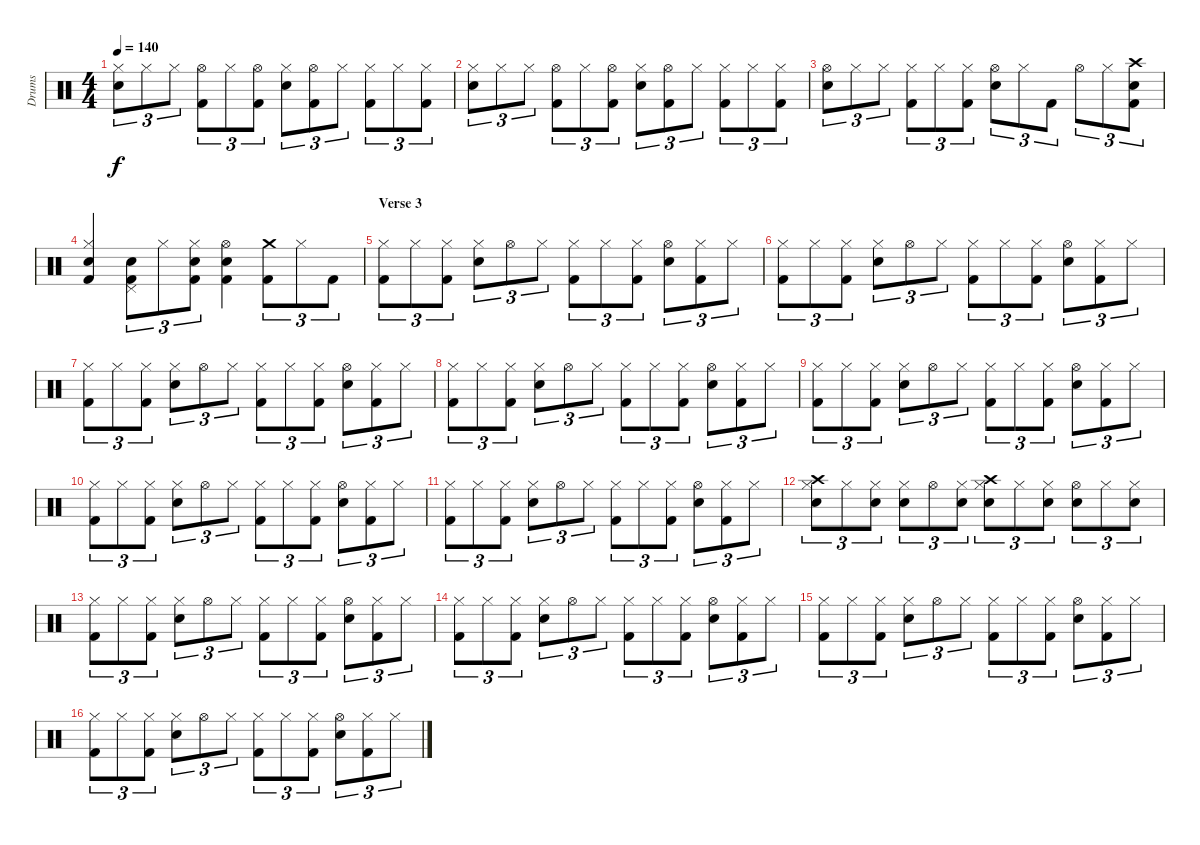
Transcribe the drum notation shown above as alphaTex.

\track ("Drums" "Drums") {instrument percussion}
\staff {score}
\articulation defaults
\ts (4 4)
\tempo 140
\clef neutral
\ks c
("Snare (hit) 2" "Hi-Hat (closed)").8{tu (3 2) dy f} "Hi-Hat (closed)".8{tu (3 2)} "Hi-Hat (closed)".8{tu (3 2)} ("Kick (hit) 2" "Hi-Hat (open)").8{tu (3 2)} "Hi-Hat (closed)".8{tu (3 2)} ("Kick (hit) 2" "Hi-Hat (open)").8{tu (3 2)} ("Hi-Hat (closed)" "Snare (hit) 2").8{tu (3 2)} ("Hi-Hat (open)" "Kick (hit) 2").8{tu (3 2)} "Hi-Hat (closed)".8{tu (3 2)} ("Hi-Hat (closed)" "Kick (hit) 2").8{tu (3 2)} "Hi-Hat (closed)".8{tu (3 2)} ("Hi-Hat (closed)" "Kick (hit) 2").8{tu (3 2)} |
("Snare (hit) 2" "Hi-Hat (closed)").8{tu (3 2)} "Hi-Hat (closed)".8{tu (3 2)} "Hi-Hat (closed)".8{tu (3 2)} ("Kick (hit) 2" "Hi-Hat (open)").8{tu (3 2)} "Hi-Hat (closed)".8{tu (3 2)} ("Kick (hit) 2" "Hi-Hat (open)").8{tu (3 2)} ("Hi-Hat (closed)" "Snare (hit) 2").8{tu (3 2)} ("Hi-Hat (open)" "Kick (hit) 2").8{tu (3 2)} "Hi-Hat (closed)".8{tu (3 2)} ("Hi-Hat (closed)" "Kick (hit) 2").8{tu (3 2)} "Hi-Hat (closed)".8{tu (3 2)} ("Hi-Hat (closed)" "Kick (hit) 2").8{tu (3 2)} |
("Snare (hit) 2" "Hi-Hat (open)").8{tu (3 2)} "Hi-Hat (closed)".8{tu (3 2)} "Hi-Hat (closed)".8{tu (3 2)} ("Hi-Hat (closed)" "Kick (hit) 2").8{tu (3 2)} "Hi-Hat (closed)".8{tu (3 2)} ("Kick (hit) 2" "Hi-Hat (closed)").8{tu (3 2)} ("Snare (hit) 2" "Hi-Hat (open)").8{tu (3 2)} "Hi-Hat (closed)".8{tu (3 2)} "Kick (hit) 2".8{tu (3 2)} "Hi-Hat (open)".8{tu (3 2)} "Hi-Hat (closed)".8{tu (3 2)} ("Kick (hit) 2" "Crash high (hit)" "Snare (hit) 2").8{tu (3 2)} |
("Hi-Hat (closed)" "Kick (hit) 2" "Snare (hit) 2").4 ("Snare (hit) 2" "Kick (hit) 2" "Pedal Hi-Hat (hit)").8{tu (3 2)} "Hi-Hat (closed)".8{tu (3 2)} ("Hi-Hat (closed)" "Kick (hit) 2" "Snare (hit) 2").8{tu (3 2)} ("Kick (hit) 2" "Hi-Hat (open)" "Snare (hit) 2").4 ("Crash medium (hit)" "Kick (hit) 2").8{tu (3 2)} "Hi-Hat (closed)".8{tu (3 2)} "Kick (hit) 2".8{tu (3 2)} |
\section ("" "Verse 3")
("Kick (hit) 2" "Hi-Hat (closed)").8{tu (3 2)} "Hi-Hat (closed)".8{tu (3 2)} ("Kick (hit) 2" "Hi-Hat (closed)").8{tu (3 2)} ("Snare (hit) 2" "Hi-Hat (closed)").8{tu (3 2)} "Hi-Hat (open)".8{tu (3 2)} "Hi-Hat (closed)".8{tu (3 2)} ("Kick (hit) 2" "Hi-Hat (closed)").8{tu (3 2)} "Hi-Hat (closed)".8{tu (3 2)} ("Kick (hit) 2" "Hi-Hat (closed)").8{tu (3 2)} ("Snare (hit) 2" "Hi-Hat (open)").8{tu (3 2)} ("Kick (hit) 2" "Hi-Hat (closed)").8{tu (3 2)} "Hi-Hat (closed)".8{tu (3 2)} |
("Kick (hit) 2" "Hi-Hat (closed)").8{tu (3 2)} "Hi-Hat (closed)".8{tu (3 2)} ("Kick (hit) 2" "Hi-Hat (closed)").8{tu (3 2)} ("Snare (hit) 2" "Hi-Hat (closed)").8{tu (3 2)} "Hi-Hat (open)".8{tu (3 2)} "Hi-Hat (closed)".8{tu (3 2)} ("Kick (hit) 2" "Hi-Hat (closed)").8{tu (3 2)} "Hi-Hat (closed)".8{tu (3 2)} ("Kick (hit) 2" "Hi-Hat (closed)").8{tu (3 2)} ("Snare (hit) 2" "Hi-Hat (open)").8{tu (3 2)} ("Kick (hit) 2" "Hi-Hat (closed)").8{tu (3 2)} "Hi-Hat (closed)".8{tu (3 2)} |
("Kick (hit) 2" "Hi-Hat (closed)").8{tu (3 2)} "Hi-Hat (closed)".8{tu (3 2)} ("Kick (hit) 2" "Hi-Hat (closed)").8{tu (3 2)} ("Snare (hit) 2" "Hi-Hat (closed)").8{tu (3 2)} "Hi-Hat (open)".8{tu (3 2)} "Hi-Hat (closed)".8{tu (3 2)} ("Kick (hit) 2" "Hi-Hat (closed)").8{tu (3 2)} "Hi-Hat (closed)".8{tu (3 2)} ("Kick (hit) 2" "Hi-Hat (closed)").8{tu (3 2)} ("Snare (hit) 2" "Hi-Hat (open)").8{tu (3 2)} ("Kick (hit) 2" "Hi-Hat (closed)").8{tu (3 2)} "Hi-Hat (closed)".8{tu (3 2)} |
("Kick (hit) 2" "Hi-Hat (closed)").8{tu (3 2)} "Hi-Hat (closed)".8{tu (3 2)} ("Kick (hit) 2" "Hi-Hat (closed)").8{tu (3 2)} ("Snare (hit) 2" "Hi-Hat (closed)").8{tu (3 2)} "Hi-Hat (open)".8{tu (3 2)} "Hi-Hat (closed)".8{tu (3 2)} ("Kick (hit) 2" "Hi-Hat (closed)").8{tu (3 2)} "Hi-Hat (closed)".8{tu (3 2)} ("Kick (hit) 2" "Hi-Hat (closed)").8{tu (3 2)} ("Snare (hit) 2" "Hi-Hat (open)").8{tu (3 2)} ("Kick (hit) 2" "Hi-Hat (closed)").8{tu (3 2)} "Hi-Hat (closed)".8{tu (3 2)} |
("Kick (hit) 2" "Hi-Hat (closed)").8{tu (3 2)} "Hi-Hat (closed)".8{tu (3 2)} ("Kick (hit) 2" "Hi-Hat (closed)").8{tu (3 2)} ("Snare (hit) 2" "Hi-Hat (closed)").8{tu (3 2)} "Hi-Hat (open)".8{tu (3 2)} "Hi-Hat (closed)".8{tu (3 2)} ("Kick (hit) 2" "Hi-Hat (closed)").8{tu (3 2)} "Hi-Hat (closed)".8{tu (3 2)} ("Kick (hit) 2" "Hi-Hat (closed)").8{tu (3 2)} ("Snare (hit) 2" "Hi-Hat (open)").8{tu (3 2)} ("Kick (hit) 2" "Hi-Hat (closed)").8{tu (3 2)} "Hi-Hat (closed)".8{tu (3 2)} |
("Kick (hit) 2" "Hi-Hat (closed)").8{tu (3 2)} "Hi-Hat (closed)".8{tu (3 2)} ("Kick (hit) 2" "Hi-Hat (closed)").8{tu (3 2)} ("Snare (hit) 2" "Hi-Hat (closed)").8{tu (3 2)} "Hi-Hat (open)".8{tu (3 2)} "Hi-Hat (closed)".8{tu (3 2)} ("Kick (hit) 2" "Hi-Hat (closed)").8{tu (3 2)} "Hi-Hat (closed)".8{tu (3 2)} ("Kick (hit) 2" "Hi-Hat (closed)").8{tu (3 2)} ("Snare (hit) 2" "Hi-Hat (open)").8{tu (3 2)} ("Kick (hit) 2" "Hi-Hat (closed)").8{tu (3 2)} "Hi-Hat (closed)".8{tu (3 2)} |
("Kick (hit) 2" "Hi-Hat (closed)").8{tu (3 2)} "Hi-Hat (closed)".8{tu (3 2)} ("Kick (hit) 2" "Hi-Hat (closed)").8{tu (3 2)} ("Snare (hit) 2" "Hi-Hat (closed)").8{tu (3 2)} "Hi-Hat (open)".8{tu (3 2)} "Hi-Hat (closed)".8{tu (3 2)} ("Kick (hit) 2" "Hi-Hat (closed)").8{tu (3 2)} "Hi-Hat (closed)".8{tu (3 2)} ("Kick (hit) 2" "Hi-Hat (closed)").8{tu (3 2)} ("Snare (hit) 2" "Hi-Hat (open)").8{tu (3 2)} ("Kick (hit) 2" "Hi-Hat (closed)").8{tu (3 2)} "Hi-Hat (closed)".8{tu (3 2)} |
("Snare (hit) 2" "Hi-Hat (closed)" "Crash high (hit)").8{tu (3 2)} "Hi-Hat (closed)".8{tu (3 2)} ("Snare (hit) 2" "Hi-Hat (closed)").8{tu (3 2)} ("Snare (hit) 2" "Hi-Hat (closed)").8{tu (3 2)} "Hi-Hat (open)".8{tu (3 2)} ("Snare (hit) 2" "Hi-Hat (closed)").8{tu (3 2)} ("Snare (hit) 2" "Hi-Hat (closed)" "Crash high (hit)").8{tu (3 2)} "Hi-Hat (closed)".8{tu (3 2)} ("Snare (hit) 2" "Hi-Hat (closed)").8{tu (3 2)} ("Snare (hit) 2" "Hi-Hat (open)").8{tu (3 2)} "Hi-Hat (closed)".8{tu (3 2)} ("Snare (hit) 2" "Hi-Hat (closed)").8{tu (3 2)} |
("Kick (hit) 2" "Hi-Hat (closed)").8{tu (3 2)} "Hi-Hat (closed)".8{tu (3 2)} ("Kick (hit) 2" "Hi-Hat (closed)").8{tu (3 2)} ("Snare (hit) 2" "Hi-Hat (closed)").8{tu (3 2)} "Hi-Hat (open)".8{tu (3 2)} "Hi-Hat (closed)".8{tu (3 2)} ("Kick (hit) 2" "Hi-Hat (closed)").8{tu (3 2)} "Hi-Hat (closed)".8{tu (3 2)} ("Kick (hit) 2" "Hi-Hat (closed)").8{tu (3 2)} ("Snare (hit) 2" "Hi-Hat (open)").8{tu (3 2)} ("Kick (hit) 2" "Hi-Hat (closed)").8{tu (3 2)} "Hi-Hat (closed)".8{tu (3 2)} |
("Kick (hit) 2" "Hi-Hat (closed)").8{tu (3 2)} "Hi-Hat (closed)".8{tu (3 2)} ("Kick (hit) 2" "Hi-Hat (closed)").8{tu (3 2)} ("Snare (hit) 2" "Hi-Hat (closed)").8{tu (3 2)} "Hi-Hat (open)".8{tu (3 2)} "Hi-Hat (closed)".8{tu (3 2)} ("Kick (hit) 2" "Hi-Hat (closed)").8{tu (3 2)} "Hi-Hat (closed)".8{tu (3 2)} ("Kick (hit) 2" "Hi-Hat (closed)").8{tu (3 2)} ("Snare (hit) 2" "Hi-Hat (open)").8{tu (3 2)} ("Kick (hit) 2" "Hi-Hat (closed)").8{tu (3 2)} "Hi-Hat (closed)".8{tu (3 2)} |
("Kick (hit) 2" "Hi-Hat (closed)").8{tu (3 2)} "Hi-Hat (closed)".8{tu (3 2)} ("Kick (hit) 2" "Hi-Hat (closed)").8{tu (3 2)} ("Snare (hit) 2" "Hi-Hat (closed)").8{tu (3 2)} "Hi-Hat (open)".8{tu (3 2)} "Hi-Hat (closed)".8{tu (3 2)} ("Kick (hit) 2" "Hi-Hat (closed)").8{tu (3 2)} "Hi-Hat (closed)".8{tu (3 2)} ("Kick (hit) 2" "Hi-Hat (closed)").8{tu (3 2)} ("Snare (hit) 2" "Hi-Hat (open)").8{tu (3 2)} ("Kick (hit) 2" "Hi-Hat (closed)").8{tu (3 2)} "Hi-Hat (closed)".8{tu (3 2)} |
("Kick (hit) 2" "Hi-Hat (closed)").8{tu (3 2)} "Hi-Hat (closed)".8{tu (3 2)} ("Kick (hit) 2" "Hi-Hat (closed)").8{tu (3 2)} ("Snare (hit) 2" "Hi-Hat (closed)").8{tu (3 2)} "Hi-Hat (open)".8{tu (3 2)} "Hi-Hat (closed)".8{tu (3 2)} ("Kick (hit) 2" "Hi-Hat (closed)").8{tu (3 2)} "Hi-Hat (closed)".8{tu (3 2)} ("Kick (hit) 2" "Hi-Hat (closed)").8{tu (3 2)} ("Snare (hit) 2" "Hi-Hat (open)").8{tu (3 2)} ("Kick (hit) 2" "Hi-Hat (closed)").8{tu (3 2)} "Hi-Hat (closed)".8{tu (3 2)}
